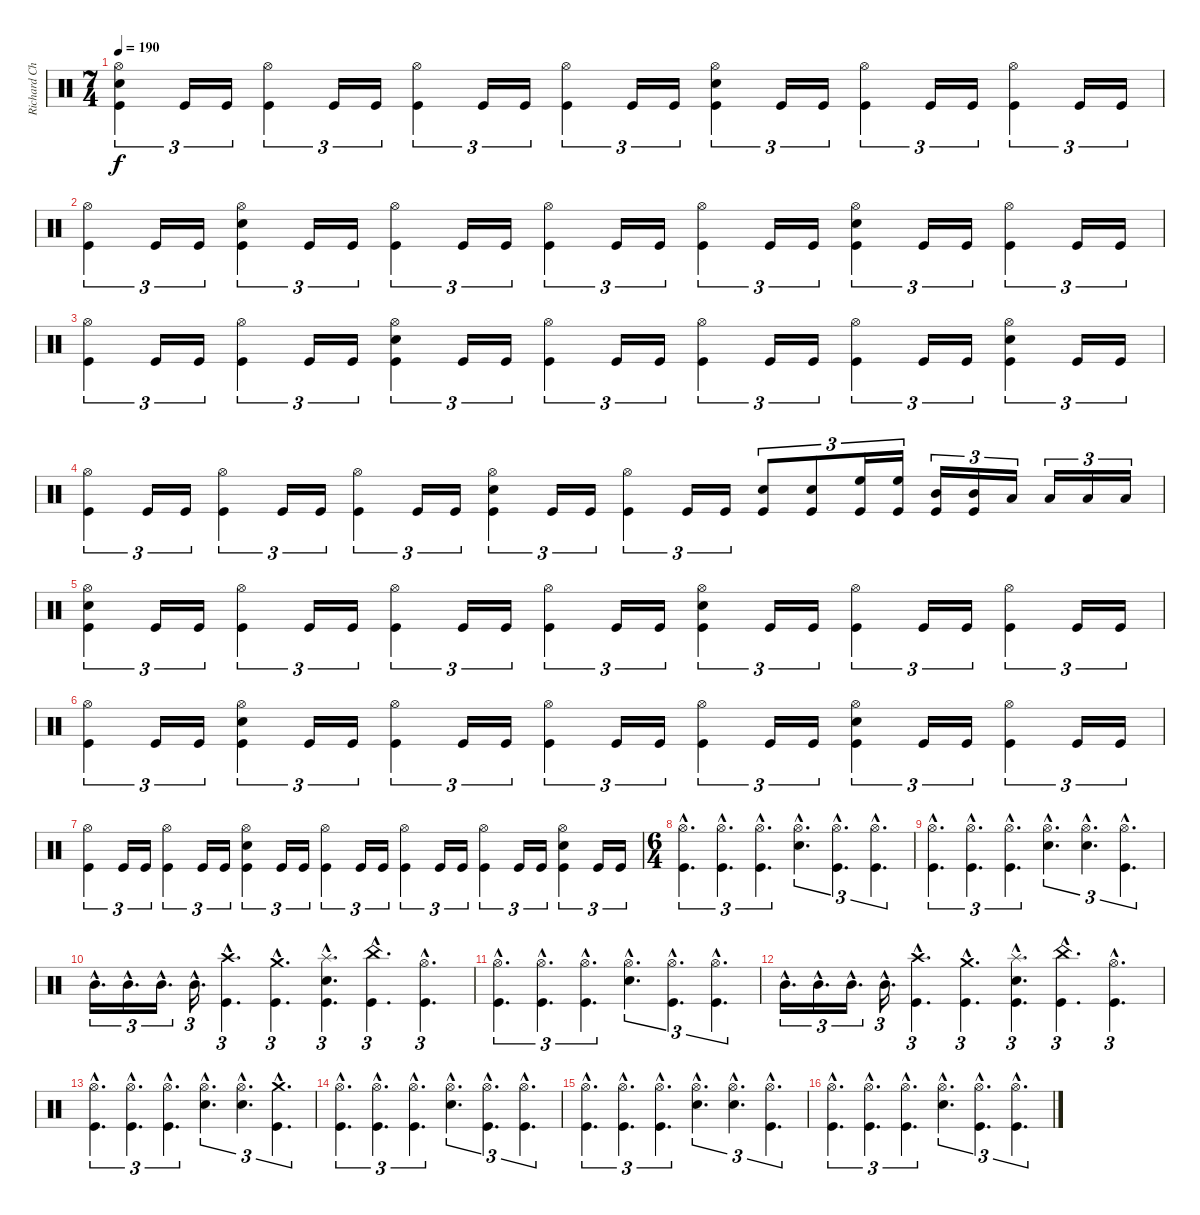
\track ("Richard Christy" "Richard Ch") {instrument percussion}
\staff {score}
\articulation defaults
\ts (7 4)
\tempo 190
\clef neutral
\ks c
("Hi-Hat (open)" "Electric Snare (hit)" "Kick (hit)").4{tu (3 2) dy f} "Kick (hit)".16{tu (3 2)} "Kick (hit)".16{tu (3 2)} ("Hi-Hat (open)" "Kick (hit)").4{tu (3 2)} "Kick (hit)".16{tu (3 2)} "Kick (hit)".16{tu (3 2)} ("Hi-Hat (open)" "Kick (hit)").4{tu (3 2)} "Kick (hit)".16{tu (3 2)} "Kick (hit)".16{tu (3 2)} ("Hi-Hat (open)" "Kick (hit)").4{tu (3 2)} "Kick (hit)".16{tu (3 2)} "Kick (hit)".16{tu (3 2)} ("Hi-Hat (open)" "Electric Snare (hit)" "Kick (hit)").4{tu (3 2)} "Kick (hit)".16{tu (3 2)} "Kick (hit)".16{tu (3 2)} ("Hi-Hat (open)" "Kick (hit)").4{tu (3 2)} "Kick (hit)".16{tu (3 2)} "Kick (hit)".16{tu (3 2)} ("Hi-Hat (open)" "Kick (hit)").4{tu (3 2)} "Kick (hit)".16{tu (3 2)} "Kick (hit)".16{tu (3 2)} |
("Hi-Hat (open)" "Kick (hit)").4{tu (3 2)} "Kick (hit)".16{tu (3 2)} "Kick (hit)".16{tu (3 2)} ("Hi-Hat (open)" "Electric Snare (hit)" "Kick (hit)").4{tu (3 2)} "Kick (hit)".16{tu (3 2)} "Kick (hit)".16{tu (3 2)} ("Hi-Hat (open)" "Kick (hit)").4{tu (3 2)} "Kick (hit)".16{tu (3 2)} "Kick (hit)".16{tu (3 2)} ("Hi-Hat (open)" "Kick (hit)").4{tu (3 2)} "Kick (hit)".16{tu (3 2)} "Kick (hit)".16{tu (3 2)} ("Hi-Hat (open)" "Kick (hit)").4{tu (3 2)} "Kick (hit)".16{tu (3 2)} "Kick (hit)".16{tu (3 2)} ("Hi-Hat (open)" "Electric Snare (hit)" "Kick (hit)").4{tu (3 2)} "Kick (hit)".16{tu (3 2)} "Kick (hit)".16{tu (3 2)} ("Hi-Hat (open)" "Kick (hit)").4{tu (3 2)} "Kick (hit)".16{tu (3 2)} "Kick (hit)".16{tu (3 2)} |
("Hi-Hat (open)" "Kick (hit)").4{tu (3 2)} "Kick (hit)".16{tu (3 2)} "Kick (hit)".16{tu (3 2)} ("Hi-Hat (open)" "Kick (hit)").4{tu (3 2)} "Kick (hit)".16{tu (3 2)} "Kick (hit)".16{tu (3 2)} ("Hi-Hat (open)" "Electric Snare (hit)" "Kick (hit)").4{tu (3 2)} "Kick (hit)".16{tu (3 2)} "Kick (hit)".16{tu (3 2)} ("Hi-Hat (open)" "Kick (hit)").4{tu (3 2)} "Kick (hit)".16{tu (3 2)} "Kick (hit)".16{tu (3 2)} ("Hi-Hat (open)" "Kick (hit)").4{tu (3 2)} "Kick (hit)".16{tu (3 2)} "Kick (hit)".16{tu (3 2)} ("Hi-Hat (open)" "Kick (hit)").4{tu (3 2)} "Kick (hit)".16{tu (3 2)} "Kick (hit)".16{tu (3 2)} ("Hi-Hat (open)" "Electric Snare (hit)" "Kick (hit)").4{tu (3 2)} "Kick (hit)".16{tu (3 2)} "Kick (hit)".16{tu (3 2)} |
("Hi-Hat (open)" "Kick (hit)").4{tu (3 2)} "Kick (hit)".16{tu (3 2)} "Kick (hit)".16{tu (3 2)} ("Hi-Hat (open)" "Kick (hit)").4{tu (3 2)} "Kick (hit)".16{tu (3 2)} "Kick (hit)".16{tu (3 2)} ("Hi-Hat (open)" "Kick (hit)").4{tu (3 2)} "Kick (hit)".16{tu (3 2)} "Kick (hit)".16{tu (3 2)} ("Hi-Hat (open)" "Electric Snare (hit)" "Kick (hit)").4{tu (3 2)} "Kick (hit)".16{tu (3 2)} "Kick (hit)".16{tu (3 2)} ("Hi-Hat (open)" "Kick (hit)").4{tu (3 2)} "Kick (hit)".16{tu (3 2)} "Kick (hit)".16{tu (3 2)} ("Electric Snare (hit)" "Kick (hit)").8{tu (3 2)} ("Electric Snare (hit)" "Kick (hit)").8{tu (3 2)} ("High Floor Tom (hit)" "Kick (hit)").16{tu (3 2)} ("High Floor Tom (hit)" "Kick (hit)").16{tu (3 2)} ("Mid Tom (hit)" "Kick (hit)").16{tu (3 2)} ("Mid Tom (hit)" "Kick (hit)").16{tu (3 2)} "Low Tom (hit)".16{tu (3 2)} "Low Tom (hit)".16{tu (3 2)} "Low Floor Tom (hit)".16{tu (3 2)} "Low Floor Tom (hit)".16{tu (3 2)} |
("Hi-Hat (open)" "Electric Snare (hit)" "Kick (hit)").4{tu (3 2)} "Kick (hit)".16{tu (3 2)} "Kick (hit)".16{tu (3 2)} ("Hi-Hat (open)" "Kick (hit)").4{tu (3 2)} "Kick (hit)".16{tu (3 2)} "Kick (hit)".16{tu (3 2)} ("Hi-Hat (open)" "Kick (hit)").4{tu (3 2)} "Kick (hit)".16{tu (3 2)} "Kick (hit)".16{tu (3 2)} ("Hi-Hat (open)" "Kick (hit)").4{tu (3 2)} "Kick (hit)".16{tu (3 2)} "Kick (hit)".16{tu (3 2)} ("Hi-Hat (open)" "Electric Snare (hit)" "Kick (hit)").4{tu (3 2)} "Kick (hit)".16{tu (3 2)} "Kick (hit)".16{tu (3 2)} ("Hi-Hat (open)" "Kick (hit)").4{tu (3 2)} "Kick (hit)".16{tu (3 2)} "Kick (hit)".16{tu (3 2)} ("Hi-Hat (open)" "Kick (hit)").4{tu (3 2)} "Kick (hit)".16{tu (3 2)} "Kick (hit)".16{tu (3 2)} |
("Hi-Hat (open)" "Kick (hit)").4{tu (3 2)} "Kick (hit)".16{tu (3 2)} "Kick (hit)".16{tu (3 2)} ("Hi-Hat (open)" "Electric Snare (hit)" "Kick (hit)").4{tu (3 2)} "Kick (hit)".16{tu (3 2)} "Kick (hit)".16{tu (3 2)} ("Hi-Hat (open)" "Kick (hit)").4{tu (3 2)} "Kick (hit)".16{tu (3 2)} "Kick (hit)".16{tu (3 2)} ("Hi-Hat (open)" "Kick (hit)").4{tu (3 2)} "Kick (hit)".16{tu (3 2)} "Kick (hit)".16{tu (3 2)} ("Hi-Hat (open)" "Kick (hit)").4{tu (3 2)} "Kick (hit)".16{tu (3 2)} "Kick (hit)".16{tu (3 2)} ("Hi-Hat (open)" "Electric Snare (hit)" "Kick (hit)").4{tu (3 2)} "Kick (hit)".16{tu (3 2)} "Kick (hit)".16{tu (3 2)} ("Hi-Hat (open)" "Kick (hit)").4{tu (3 2)} "Kick (hit)".16{tu (3 2)} "Kick (hit)".16{tu (3 2)} |
("Hi-Hat (open)" "Kick (hit)").4{tu (3 2)} "Kick (hit)".16{tu (3 2)} "Kick (hit)".16{tu (3 2)} ("Hi-Hat (open)" "Kick (hit)").4{tu (3 2)} "Kick (hit)".16{tu (3 2)} "Kick (hit)".16{tu (3 2)} ("Hi-Hat (open)" "Electric Snare (hit)" "Kick (hit)").4{tu (3 2)} "Kick (hit)".16{tu (3 2)} "Kick (hit)".16{tu (3 2)} ("Hi-Hat (open)" "Kick (hit)").4{tu (3 2)} "Kick (hit)".16{tu (3 2)} "Kick (hit)".16{tu (3 2)} ("Hi-Hat (open)" "Kick (hit)").4{tu (3 2)} "Kick (hit)".16{tu (3 2)} "Kick (hit)".16{tu (3 2)} ("Hi-Hat (open)" "Kick (hit)").4{tu (3 2)} "Kick (hit)".16{tu (3 2)} "Kick (hit)".16{tu (3 2)} ("Hi-Hat (open)" "Electric Snare (hit)" "Kick (hit)").4{tu (3 2)} "Kick (hit)".16{tu (3 2)} "Kick (hit)".16{tu (3 2)} |
\ts (6 4)
("Hi-Hat (open)"{hac} "Kick (hit)"{hac}).4{d tu (3 2)} ("Hi-Hat (open)"{hac} "Kick (hit)"{hac}).4{d tu (3 2)} ("Hi-Hat (open)"{hac} "Kick (hit)"{hac}).4{d tu (3 2)} ("Hi-Hat (open)"{hac} "Electric Snare (hit)"{hac}).4{d tu (3 2)} ("Hi-Hat (open)"{hac} "Kick (hit)"{hac}).4{d tu (3 2)} ("Hi-Hat (open)"{hac} "Kick (hit)"{hac}).4{d tu (3 2)} |
("Hi-Hat (open)"{hac} "Kick (hit)"{hac}).4{d tu (3 2)} ("Hi-Hat (open)"{hac} "Kick (hit)"{hac}).4{d tu (3 2)} ("Hi-Hat (open)"{hac} "Kick (hit)"{hac}).4{d tu (3 2)} ("Hi-Hat (open)"{hac} "Electric Snare (hit)"{hac}).4{d tu (3 2)} ("Hi-Hat (open)"{hac} "Electric Snare (hit)"{hac}).4{d tu (3 2)} ("Hi-Hat (open)"{hac} "Kick (hit)"{hac}).4{d tu (3 2)} |
"Mid Tom (hit)"{hac}.16{d tu (3 2)} "Mid Tom (hit)"{hac}.16{d tu (3 2)} "Mid Tom (hit)"{hac}.16{d tu (3 2)} "Mid Tom (hit)"{hac}.16{d tu (3 2)} ("Crash high (hit)"{hac} "Kick (hit)"{hac}).4{d tu (3 2)} ("Crash medium (hit)"{hac} "Kick (hit)"{hac}).4{d tu (3 2)} ("Splash (hit)"{hac} "Electric Snare (hit)"{hac} "Kick (hit)"{hac}).4{d tu (3 2)} ("China (hit)"{hac} "Kick (hit)"{hac}).4{d tu (3 2)} ("Hi-Hat (open)"{hac} "Kick (hit)"{hac}).4{d tu (3 2)} |
("Hi-Hat (open)"{hac} "Kick (hit)"{hac}).4{d tu (3 2)} ("Hi-Hat (open)"{hac} "Kick (hit)"{hac}).4{d tu (3 2)} ("Hi-Hat (open)"{hac} "Kick (hit)"{hac}).4{d tu (3 2)} ("Hi-Hat (open)"{hac} "Electric Snare (hit)"{hac}).4{d tu (3 2)} ("Hi-Hat (open)"{hac} "Kick (hit)"{hac}).4{d tu (3 2)} ("Hi-Hat (open)"{hac} "Kick (hit)"{hac}).4{d tu (3 2)} |
"Mid Tom (hit)"{hac}.16{d tu (3 2)} "Mid Tom (hit)"{hac}.16{d tu (3 2)} "Mid Tom (hit)"{hac}.16{d tu (3 2)} "Mid Tom (hit)"{hac}.16{d tu (3 2)} ("Crash high (hit)"{hac} "Kick (hit)"{hac}).4{d tu (3 2)} ("Crash medium (hit)"{hac} "Kick (hit)"{hac}).4{d tu (3 2)} ("Splash (hit)"{hac} "Electric Snare (hit)"{hac} "Kick (hit)"{hac}).4{d tu (3 2)} ("China (hit)"{hac} "Kick (hit)"{hac}).4{d tu (3 2)} ("Hi-Hat (open)"{hac} "Kick (hit)"{hac}).4{d tu (3 2)} |
("Hi-Hat (open)"{hac} "Kick (hit)"{hac}).4{d tu (3 2)} ("Hi-Hat (open)"{hac} "Kick (hit)"{hac}).4{d tu (3 2)} ("Hi-Hat (open)"{hac} "Kick (hit)"{hac}).4{d tu (3 2)} ("Hi-Hat (open)"{hac} "Electric Snare (hit)"{hac}).4{d tu (3 2)} ("Hi-Hat (open)"{hac} "Electric Snare (hit)"{hac}).4{d tu (3 2)} ("Crash medium (hit)"{hac} "Kick (hit)"{hac}).4{d tu (3 2)} |
("Hi-Hat (open)"{hac} "Kick (hit)"{hac}).4{d tu (3 2)} ("Hi-Hat (open)"{hac} "Kick (hit)"{hac}).4{d tu (3 2)} ("Hi-Hat (open)"{hac} "Kick (hit)"{hac}).4{d tu (3 2)} ("Hi-Hat (open)"{hac} "Electric Snare (hit)"{hac}).4{d tu (3 2)} ("Hi-Hat (open)"{hac} "Kick (hit)"{hac}).4{d tu (3 2)} ("Hi-Hat (open)"{hac} "Kick (hit)"{hac}).4{d tu (3 2)} |
("Hi-Hat (open)"{hac} "Kick (hit)"{hac}).4{d tu (3 2)} ("Hi-Hat (open)"{hac} "Kick (hit)"{hac}).4{d tu (3 2)} ("Hi-Hat (open)"{hac} "Kick (hit)"{hac}).4{d tu (3 2)} ("Hi-Hat (open)"{hac} "Electric Snare (hit)"{hac}).4{d tu (3 2)} ("Hi-Hat (open)"{hac} "Electric Snare (hit)"{hac}).4{d tu (3 2)} ("Hi-Hat (open)"{hac} "Kick (hit)"{hac}).4{d tu (3 2)} |
("Hi-Hat (open)"{hac} "Kick (hit)"{hac}).4{d tu (3 2)} ("Hi-Hat (open)"{hac} "Kick (hit)"{hac}).4{d tu (3 2)} ("Hi-Hat (open)"{hac} "Kick (hit)"{hac}).4{d tu (3 2)} ("Hi-Hat (open)"{hac} "Electric Snare (hit)"{hac}).4{d tu (3 2)} ("Hi-Hat (open)"{hac} "Kick (hit)"{hac}).4{d tu (3 2)} ("Hi-Hat (open)"{hac} "Kick (hit)"{hac}).4{d tu (3 2)}
